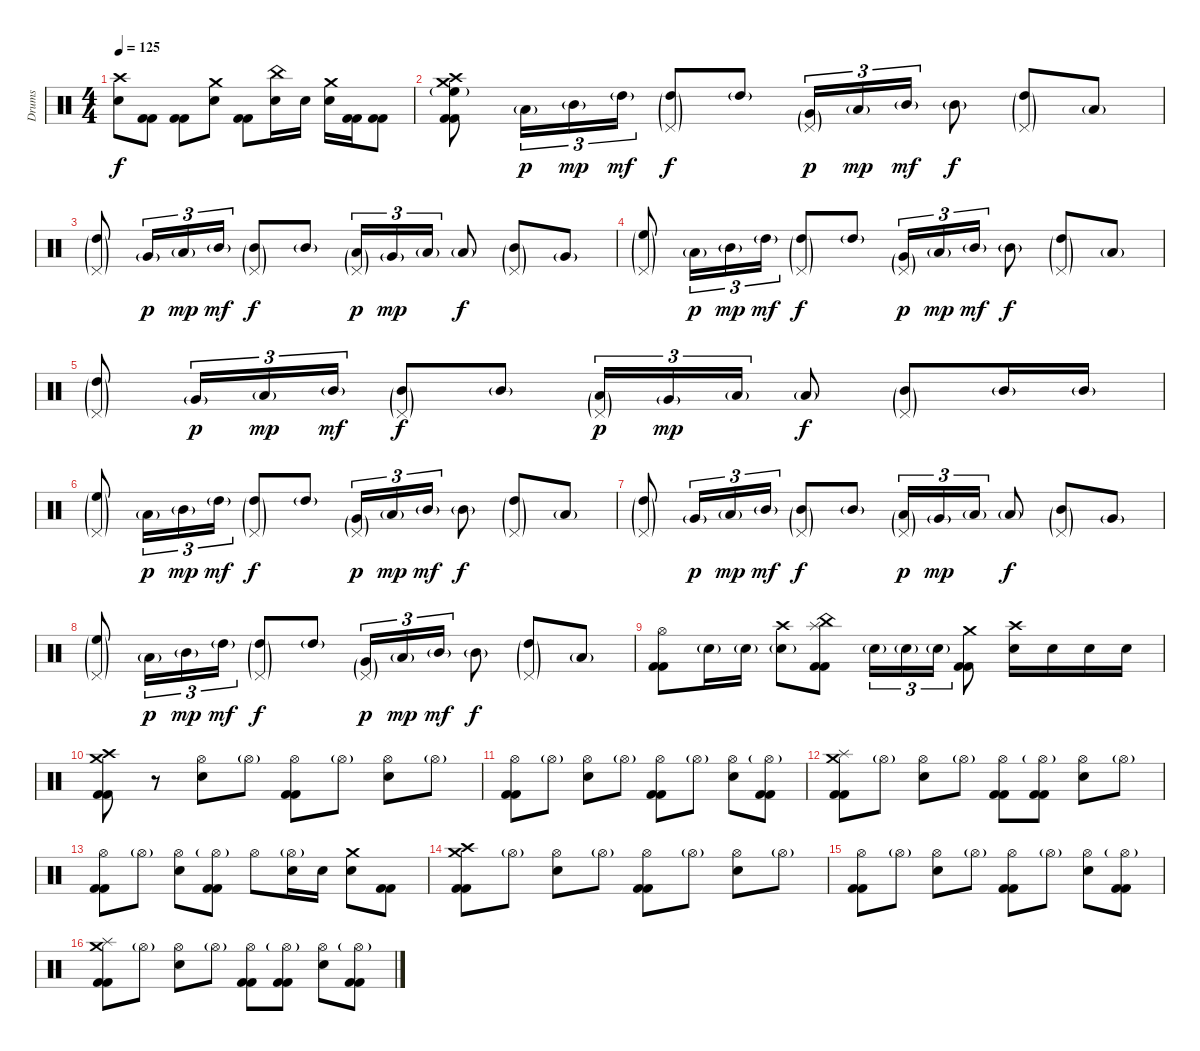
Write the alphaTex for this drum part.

\track ("Drums" "Drums") {instrument percussion}
\staff {score}
\articulation defaults
\ts (4 4)
\tempo 125
\clef neutral
\ks c
("Crash high (hit)" "Electric Snare (hit)").8{dy f} ("Kick (hit) 2" "Kick (hit) 2").8 ("Kick (hit) 2" "Kick (hit) 2").8 ("Crash medium (hit)" "Electric Snare (hit)").8 ("Kick (hit) 2" "Kick (hit) 2").8 ("China (hit)" "Electric Snare (hit)").16 "Electric Snare (hit)".16 ("Crash medium (hit)" "Electric Snare (hit)").16 ("Kick (hit) 2" "Kick (hit) 2").16 ("Kick (hit) 2" "Kick (hit) 2").8 |
("Crash medium (hit)" "Crash high (hit)" "High Floor Tom (hit)"{g} "Kick (hit) 2" "Kick (hit) 2").8 "Low Tom (hit)"{g}.16{tu (3 2) dy p} "Mid Tom (hit)"{g}.16{tu (3 2) dy mp} "High Tom (hit)"{g}.16{tu (3 2) dy mf} ("Pedal Hi-Hat (hit)"{g} "High Tom (hit)"{g}).8{dy f} "High Tom (hit)"{g}.8 ("Pedal Hi-Hat (hit)"{g} "Very Low Tom (hit)"{g}).16{tu (3 2) dy p} "Low Tom (hit)"{g}.16{tu (3 2) dy mp} "Mid Tom (hit)"{g}.16{tu (3 2) dy mf} "Mid Tom (hit)"{g}.8{dy f} ("Pedal Hi-Hat (hit)"{g} "High Tom (hit)"{g}).8 "Low Tom (hit)"{g}.8 |
("Pedal Hi-Hat (hit)"{g} "High Tom (hit)"{g}).8 "Very Low Tom (hit)"{g}.16{tu (3 2) dy p} "Low Tom (hit)"{g}.16{tu (3 2) dy mp} "Mid Tom (hit)"{g}.16{tu (3 2) dy mf} ("Pedal Hi-Hat (hit)"{g} "Mid Tom (hit)"{g}).8{dy f} "Mid Tom (hit)"{g}.8 ("Pedal Hi-Hat (hit)"{g} "Low Floor Tom (hit)"{g}).16{tu (3 2) dy p} "Very Low Tom (hit)"{g}.16{tu (3 2) dy mp} "Low Tom (hit)"{g}.16{tu (3 2)} "Low Tom (hit)"{g}.8{dy f} ("Pedal Hi-Hat (hit)"{g} "Mid Tom (hit)"{g}).8 "Very Low Tom (hit)"{g}.8 |
("Pedal Hi-Hat (hit)"{g} "High Floor Tom (hit)"{g}).8 "Low Tom (hit)"{g}.16{tu (3 2) dy p} "Mid Tom (hit)"{g}.16{tu (3 2) dy mp} "High Tom (hit)"{g}.16{tu (3 2) dy mf} ("Pedal Hi-Hat (hit)"{g} "High Tom (hit)"{g}).8{dy f} "High Tom (hit)"{g}.8 ("Pedal Hi-Hat (hit)"{g} "Very Low Tom (hit)"{g}).16{tu (3 2) dy p} "Low Tom (hit)"{g}.16{tu (3 2) dy mp} "Mid Tom (hit)"{g}.16{tu (3 2) dy mf} "Mid Tom (hit)"{g}.8{dy f} ("Pedal Hi-Hat (hit)"{g} "High Tom (hit)"{g}).8 "Low Tom (hit)"{g}.8 |
("Pedal Hi-Hat (hit)"{g} "High Tom (hit)"{g}).8 "Very Low Tom (hit)"{g}.16{tu (3 2) dy p} "Low Tom (hit)"{g}.16{tu (3 2) dy mp} "Mid Tom (hit)"{g}.16{tu (3 2) dy mf} ("Pedal Hi-Hat (hit)"{g} "Mid Tom (hit)"{g}).8{dy f} "Mid Tom (hit)"{g}.8 ("Pedal Hi-Hat (hit)"{g} "Low Floor Tom (hit)"{g}).16{tu (3 2) dy p} "Very Low Tom (hit)"{g}.16{tu (3 2) dy mp} "Low Tom (hit)"{g}.16{tu (3 2)} "Low Tom (hit)"{g}.8{dy f} ("Pedal Hi-Hat (hit)"{g} "Mid Tom (hit)"{g}).8 "Mid Tom (hit)"{g}.16 "Mid Tom (hit)"{g}.16 |
("Pedal Hi-Hat (hit)"{g} "High Floor Tom (hit)"{g}).8 "Low Tom (hit)"{g}.16{tu (3 2) dy p} "Mid Tom (hit)"{g}.16{tu (3 2) dy mp} "High Tom (hit)"{g}.16{tu (3 2) dy mf} ("Pedal Hi-Hat (hit)"{g} "High Tom (hit)"{g}).8{dy f} "High Tom (hit)"{g}.8 ("Pedal Hi-Hat (hit)"{g} "Very Low Tom (hit)"{g}).16{tu (3 2) dy p} "Low Tom (hit)"{g}.16{tu (3 2) dy mp} "Mid Tom (hit)"{g}.16{tu (3 2) dy mf} "Mid Tom (hit)"{g}.8{dy f} ("Pedal Hi-Hat (hit)"{g} "High Tom (hit)"{g}).8 "Low Tom (hit)"{g}.8 |
("Pedal Hi-Hat (hit)"{g} "High Tom (hit)"{g}).8 "Very Low Tom (hit)"{g}.16{tu (3 2) dy p} "Low Tom (hit)"{g}.16{tu (3 2) dy mp} "Mid Tom (hit)"{g}.16{tu (3 2) dy mf} ("Pedal Hi-Hat (hit)"{g} "Mid Tom (hit)"{g}).8{dy f} "Mid Tom (hit)"{g}.8 ("Pedal Hi-Hat (hit)"{g} "Low Floor Tom (hit)"{g}).16{tu (3 2) dy p} "Very Low Tom (hit)"{g}.16{tu (3 2) dy mp} "Low Tom (hit)"{g}.16{tu (3 2)} "Low Tom (hit)"{g}.8{dy f} ("Pedal Hi-Hat (hit)"{g} "Mid Tom (hit)"{g}).8 "Very Low Tom (hit)"{g}.8 |
("Pedal Hi-Hat (hit)"{g} "High Floor Tom (hit)"{g}).8 "Low Tom (hit)"{g}.16{tu (3 2) dy p} "Mid Tom (hit)"{g}.16{tu (3 2) dy mp} "High Tom (hit)"{g}.16{tu (3 2) dy mf} ("Pedal Hi-Hat (hit)"{g} "High Tom (hit)"{g}).8{dy f} "High Tom (hit)"{g}.8 ("Pedal Hi-Hat (hit)"{g} "Very Low Tom (hit)"{g}).16{tu (3 2) dy p} "Low Tom (hit)"{g}.16{tu (3 2) dy mp} "Mid Tom (hit)"{g}.16{tu (3 2) dy mf} "Mid Tom (hit)"{g}.8{dy f} ("Pedal Hi-Hat (hit)"{g} "High Tom (hit)"{g}).8 "Low Tom (hit)"{g}.8 |
("Hi-Hat (open)" "Kick (hit) 2" "Kick (hit) 2").8 "Electric Snare (hit)"{g}.16 "Electric Snare (hit)"{g}.16 ("Crash high (hit)" "Electric Snare (hit)"{g}).8 ("China (hit)" "Splash (hit)" "Kick (hit) 2" "Kick (hit) 2").8 "Electric Snare (hit)"{g}.16{tu (3 2)} "Electric Snare (hit)"{g}.16{tu (3 2)} "Electric Snare (hit)"{g}.16{tu (3 2)} ("Crash medium (hit)" "Kick (hit) 2" "Kick (hit) 2").8 ("Crash high (hit)" "Electric Snare (hit)").16 "Electric Snare (hit)".16 "Electric Snare (hit)".16 "Electric Snare (hit)".16 |
("Crash high (hit)" "Crash medium (hit)" "Kick (hit) 2" "Kick (hit) 2").8 r.8 ("Hi-Hat (open)" "Electric Snare (hit)").8 "Hi-Hat (open)"{g}.8 ("Hi-Hat (open)" "Kick (hit) 2" "Kick (hit) 2").8 "Hi-Hat (open)"{g}.8 ("Hi-Hat (open)" "Electric Snare (hit)").8 "Hi-Hat (open)"{g}.8 |
("Hi-Hat (open)" "Kick (hit) 2" "Kick (hit) 2").8 "Hi-Hat (open)"{g}.8 ("Hi-Hat (open)" "Electric Snare (hit)").8 "Hi-Hat (open)"{g}.8 ("Hi-Hat (open)" "Kick (hit) 2" "Kick (hit) 2").8 "Hi-Hat (open)"{g}.8 ("Hi-Hat (open)" "Electric Snare (hit)").8 ("Hi-Hat (open)"{g} "Kick (hit) 2" "Kick (hit) 2").8 |
("Crash medium (hit)" "Splash (hit)" "Kick (hit) 2" "Kick (hit) 2").8 "Hi-Hat (open)"{g}.8 ("Hi-Hat (open)" "Electric Snare (hit)").8 "Hi-Hat (open)"{g}.8 ("Hi-Hat (open)" "Kick (hit) 2" "Kick (hit) 2").8 ("Hi-Hat (open)"{g} "Kick (hit) 2" "Kick (hit) 2").8 ("Hi-Hat (open)" "Electric Snare (hit)").8 "Hi-Hat (open)"{g}.8 |
("Hi-Hat (open)" "Kick (hit) 2" "Kick (hit) 2").8 "Hi-Hat (open)"{g}.8 ("Hi-Hat (open)" "Electric Snare (hit)").8 ("Hi-Hat (open)"{g} "Kick (hit) 2" "Kick (hit) 2").8 "Hi-Hat (open)".8 ("Hi-Hat (open)"{g} "Electric Snare (hit)").16 "Electric Snare (hit)".16 ("Crash medium (hit)" "Electric Snare (hit)").8 ("Kick (hit) 2" "Kick (hit) 2").8 |
("Crash high (hit)" "Crash medium (hit)" "Kick (hit) 2" "Kick (hit) 2").8 "Hi-Hat (open)"{g}.8 ("Hi-Hat (open)" "Electric Snare (hit)").8 "Hi-Hat (open)"{g}.8 ("Hi-Hat (open)" "Kick (hit) 2" "Kick (hit) 2").8 "Hi-Hat (open)"{g}.8 ("Hi-Hat (open)" "Electric Snare (hit)").8 "Hi-Hat (open)"{g}.8 |
("Hi-Hat (open)" "Kick (hit) 2" "Kick (hit) 2").8 "Hi-Hat (open)"{g}.8 ("Hi-Hat (open)" "Electric Snare (hit)").8 "Hi-Hat (open)"{g}.8 ("Hi-Hat (open)" "Kick (hit) 2" "Kick (hit) 2").8 "Hi-Hat (open)"{g}.8 ("Hi-Hat (open)" "Electric Snare (hit)").8 ("Hi-Hat (open)"{g} "Kick (hit) 2" "Kick (hit) 2").8 |
("Crash medium (hit)" "Splash (hit)" "Kick (hit) 2" "Kick (hit) 2").8 "Hi-Hat (open)"{g}.8 ("Hi-Hat (open)" "Electric Snare (hit)").8 "Hi-Hat (open)"{g}.8 ("Hi-Hat (open)" "Kick (hit) 2" "Kick (hit) 2").8 ("Hi-Hat (open)"{g} "Kick (hit) 2" "Kick (hit) 2").8 ("Hi-Hat (open)" "Electric Snare (hit)").8 ("Hi-Hat (open)"{g} "Kick (hit) 2" "Kick (hit) 2").8
